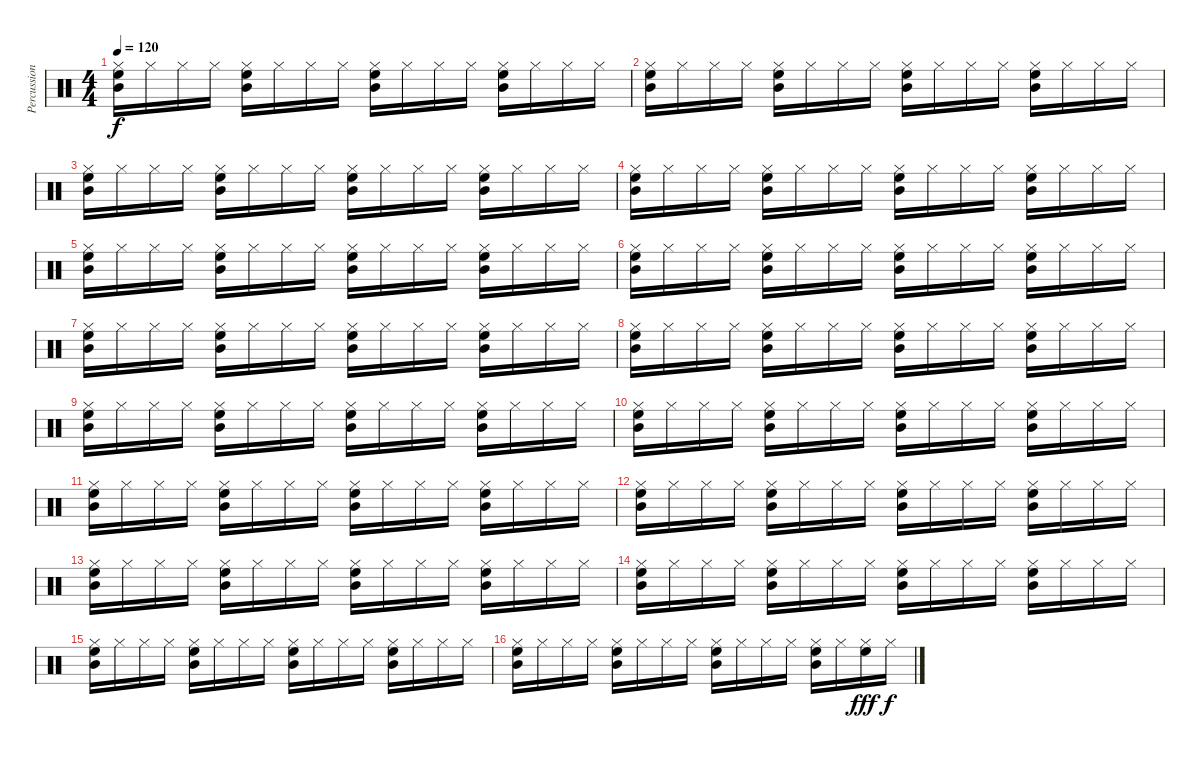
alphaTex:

\track ("Percussion" "Percussion") {instrument percussion}
\staff {score}
\articulation defaults
\ts (4 4)
\tempo 120
\clef neutral
\ks c
("Hi-Hat (closed)" "Mid Tom (hit)" "High Floor Tom (hit)").16{dy f} "Hi-Hat (closed)".16 "Hi-Hat (closed)".16 "Hi-Hat (closed)".16 ("Hi-Hat (closed)" "Mid Tom (hit)" "High Floor Tom (hit)").16 "Hi-Hat (closed)".16 "Hi-Hat (closed)".16 "Hi-Hat (closed)".16 ("Hi-Hat (closed)" "Mid Tom (hit)" "High Floor Tom (hit)").16 "Hi-Hat (closed)".16 "Hi-Hat (closed)".16 "Hi-Hat (closed)".16 ("Hi-Hat (closed)" "Mid Tom (hit)" "High Floor Tom (hit)").16 "Hi-Hat (closed)".16 "Hi-Hat (closed)".16 "Hi-Hat (closed)".16 |
("Hi-Hat (closed)" "Mid Tom (hit)" "High Floor Tom (hit)").16 "Hi-Hat (closed)".16 "Hi-Hat (closed)".16 "Hi-Hat (closed)".16 ("Hi-Hat (closed)" "Mid Tom (hit)" "High Floor Tom (hit)").16 "Hi-Hat (closed)".16 "Hi-Hat (closed)".16 "Hi-Hat (closed)".16 ("Hi-Hat (closed)" "Mid Tom (hit)" "High Floor Tom (hit)").16 "Hi-Hat (closed)".16 "Hi-Hat (closed)".16 "Hi-Hat (closed)".16 ("Hi-Hat (closed)" "Mid Tom (hit)" "High Floor Tom (hit)").16 "Hi-Hat (closed)".16 "Hi-Hat (closed)".16 "Hi-Hat (closed)".16 |
("Hi-Hat (closed)" "Mid Tom (hit)" "High Floor Tom (hit)").16 "Hi-Hat (closed)".16 "Hi-Hat (closed)".16 "Hi-Hat (closed)".16 ("Hi-Hat (closed)" "Mid Tom (hit)" "High Floor Tom (hit)").16 "Hi-Hat (closed)".16 "Hi-Hat (closed)".16 "Hi-Hat (closed)".16 ("Hi-Hat (closed)" "Mid Tom (hit)" "High Floor Tom (hit)").16 "Hi-Hat (closed)".16 "Hi-Hat (closed)".16 "Hi-Hat (closed)".16 ("Hi-Hat (closed)" "Mid Tom (hit)" "High Floor Tom (hit)").16 "Hi-Hat (closed)".16 "Hi-Hat (closed)".16 "Hi-Hat (closed)".16 |
("Hi-Hat (closed)" "Mid Tom (hit)" "High Floor Tom (hit)").16 "Hi-Hat (closed)".16 "Hi-Hat (closed)".16 "Hi-Hat (closed)".16 ("Hi-Hat (closed)" "Mid Tom (hit)" "High Floor Tom (hit)").16 "Hi-Hat (closed)".16 "Hi-Hat (closed)".16 "Hi-Hat (closed)".16 ("Hi-Hat (closed)" "Mid Tom (hit)" "High Floor Tom (hit)").16 "Hi-Hat (closed)".16 "Hi-Hat (closed)".16 "Hi-Hat (closed)".16 ("Hi-Hat (closed)" "Mid Tom (hit)" "High Floor Tom (hit)").16 "Hi-Hat (closed)".16 "Hi-Hat (closed)".16 "Hi-Hat (closed)".16 |
("Hi-Hat (closed)" "Mid Tom (hit)" "High Floor Tom (hit)").16 "Hi-Hat (closed)".16 "Hi-Hat (closed)".16 "Hi-Hat (closed)".16 ("Hi-Hat (closed)" "Mid Tom (hit)" "High Floor Tom (hit)").16 "Hi-Hat (closed)".16 "Hi-Hat (closed)".16 "Hi-Hat (closed)".16 ("Hi-Hat (closed)" "Mid Tom (hit)" "High Floor Tom (hit)").16 "Hi-Hat (closed)".16 "Hi-Hat (closed)".16 "Hi-Hat (closed)".16 ("Hi-Hat (closed)" "Mid Tom (hit)" "High Floor Tom (hit)").16 "Hi-Hat (closed)".16 "Hi-Hat (closed)".16 "Hi-Hat (closed)".16 |
("Hi-Hat (closed)" "Mid Tom (hit)" "High Floor Tom (hit)").16 "Hi-Hat (closed)".16 "Hi-Hat (closed)".16 "Hi-Hat (closed)".16 ("Hi-Hat (closed)" "Mid Tom (hit)" "High Floor Tom (hit)").16 "Hi-Hat (closed)".16 "Hi-Hat (closed)".16 "Hi-Hat (closed)".16 ("Hi-Hat (closed)" "Mid Tom (hit)" "High Floor Tom (hit)").16 "Hi-Hat (closed)".16 "Hi-Hat (closed)".16 "Hi-Hat (closed)".16 ("Hi-Hat (closed)" "Mid Tom (hit)" "High Floor Tom (hit)").16 "Hi-Hat (closed)".16 "Hi-Hat (closed)".16 "Hi-Hat (closed)".16 |
("Hi-Hat (closed)" "Mid Tom (hit)" "High Floor Tom (hit)").16 "Hi-Hat (closed)".16 "Hi-Hat (closed)".16 "Hi-Hat (closed)".16 ("Hi-Hat (closed)" "Mid Tom (hit)" "High Floor Tom (hit)").16 "Hi-Hat (closed)".16 "Hi-Hat (closed)".16 "Hi-Hat (closed)".16 ("Hi-Hat (closed)" "Mid Tom (hit)" "High Floor Tom (hit)").16 "Hi-Hat (closed)".16 "Hi-Hat (closed)".16 "Hi-Hat (closed)".16 ("Hi-Hat (closed)" "Mid Tom (hit)" "High Floor Tom (hit)").16 "Hi-Hat (closed)".16 "Hi-Hat (closed)".16 "Hi-Hat (closed)".16 |
("Hi-Hat (closed)" "Mid Tom (hit)" "High Floor Tom (hit)").16 "Hi-Hat (closed)".16 "Hi-Hat (closed)".16 "Hi-Hat (closed)".16 ("Hi-Hat (closed)" "Mid Tom (hit)" "High Floor Tom (hit)").16 "Hi-Hat (closed)".16 "Hi-Hat (closed)".16 "Hi-Hat (closed)".16 ("Hi-Hat (closed)" "Mid Tom (hit)" "High Floor Tom (hit)").16 "Hi-Hat (closed)".16 "Hi-Hat (closed)".16 "Hi-Hat (closed)".16 ("Hi-Hat (closed)" "Mid Tom (hit)" "High Floor Tom (hit)").16 "Hi-Hat (closed)".16 "Hi-Hat (closed)".16 "Hi-Hat (closed)".16 |
("Hi-Hat (closed)" "Mid Tom (hit)" "High Floor Tom (hit)").16 "Hi-Hat (closed)".16 "Hi-Hat (closed)".16 "Hi-Hat (closed)".16 ("Hi-Hat (closed)" "Mid Tom (hit)" "High Floor Tom (hit)").16 "Hi-Hat (closed)".16 "Hi-Hat (closed)".16 "Hi-Hat (closed)".16 ("Hi-Hat (closed)" "Mid Tom (hit)" "High Floor Tom (hit)").16 "Hi-Hat (closed)".16 "Hi-Hat (closed)".16 "Hi-Hat (closed)".16 ("Hi-Hat (closed)" "Mid Tom (hit)" "High Floor Tom (hit)").16 "Hi-Hat (closed)".16 "Hi-Hat (closed)".16 "Hi-Hat (closed)".16 |
("Hi-Hat (closed)" "Mid Tom (hit)" "High Floor Tom (hit)").16 "Hi-Hat (closed)".16 "Hi-Hat (closed)".16 "Hi-Hat (closed)".16 ("Hi-Hat (closed)" "Mid Tom (hit)" "High Floor Tom (hit)").16 "Hi-Hat (closed)".16 "Hi-Hat (closed)".16 "Hi-Hat (closed)".16 ("Hi-Hat (closed)" "Mid Tom (hit)" "High Floor Tom (hit)").16 "Hi-Hat (closed)".16 "Hi-Hat (closed)".16 "Hi-Hat (closed)".16 ("Hi-Hat (closed)" "Mid Tom (hit)" "High Floor Tom (hit)").16 "Hi-Hat (closed)".16 "Hi-Hat (closed)".16 "Hi-Hat (closed)".16 |
("Hi-Hat (closed)" "Mid Tom (hit)" "High Floor Tom (hit)").16 "Hi-Hat (closed)".16 "Hi-Hat (closed)".16 "Hi-Hat (closed)".16 ("Hi-Hat (closed)" "Mid Tom (hit)" "High Floor Tom (hit)").16 "Hi-Hat (closed)".16 "Hi-Hat (closed)".16 "Hi-Hat (closed)".16 ("Hi-Hat (closed)" "Mid Tom (hit)" "High Floor Tom (hit)").16 "Hi-Hat (closed)".16 "Hi-Hat (closed)".16 "Hi-Hat (closed)".16 ("Hi-Hat (closed)" "Mid Tom (hit)" "High Floor Tom (hit)").16 "Hi-Hat (closed)".16 "Hi-Hat (closed)".16 "Hi-Hat (closed)".16 |
("Hi-Hat (closed)" "Mid Tom (hit)" "High Floor Tom (hit)").16 "Hi-Hat (closed)".16 "Hi-Hat (closed)".16 "Hi-Hat (closed)".16 ("Hi-Hat (closed)" "Mid Tom (hit)" "High Floor Tom (hit)").16 "Hi-Hat (closed)".16 "Hi-Hat (closed)".16 "Hi-Hat (closed)".16 ("Hi-Hat (closed)" "Mid Tom (hit)" "High Floor Tom (hit)").16 "Hi-Hat (closed)".16 "Hi-Hat (closed)".16 "Hi-Hat (closed)".16 ("Hi-Hat (closed)" "Mid Tom (hit)" "High Floor Tom (hit)").16 "Hi-Hat (closed)".16 "Hi-Hat (closed)".16 "Hi-Hat (closed)".16 |
("Hi-Hat (closed)" "Mid Tom (hit)" "High Floor Tom (hit)").16 "Hi-Hat (closed)".16 "Hi-Hat (closed)".16 "Hi-Hat (closed)".16 ("Hi-Hat (closed)" "Mid Tom (hit)" "High Floor Tom (hit)").16 "Hi-Hat (closed)".16 "Hi-Hat (closed)".16 "Hi-Hat (closed)".16 ("Hi-Hat (closed)" "Mid Tom (hit)" "High Floor Tom (hit)").16 "Hi-Hat (closed)".16 "Hi-Hat (closed)".16 "Hi-Hat (closed)".16 ("Hi-Hat (closed)" "Mid Tom (hit)" "High Floor Tom (hit)").16 "Hi-Hat (closed)".16 "Hi-Hat (closed)".16 "Hi-Hat (closed)".16 |
("Hi-Hat (closed)" "Mid Tom (hit)" "High Floor Tom (hit)").16 "Hi-Hat (closed)".16 "Hi-Hat (closed)".16 "Hi-Hat (closed)".16 ("Hi-Hat (closed)" "Mid Tom (hit)" "High Floor Tom (hit)").16 "Hi-Hat (closed)".16 "Hi-Hat (closed)".16 "Hi-Hat (closed)".16 ("Hi-Hat (closed)" "Mid Tom (hit)" "High Floor Tom (hit)").16 "Hi-Hat (closed)".16 "Hi-Hat (closed)".16 "Hi-Hat (closed)".16 ("Hi-Hat (closed)" "Mid Tom (hit)" "High Floor Tom (hit)").16 "Hi-Hat (closed)".16 "Hi-Hat (closed)".16 "Hi-Hat (closed)".16 |
("Hi-Hat (closed)" "Mid Tom (hit)" "High Floor Tom (hit)").16 "Hi-Hat (closed)".16 "Hi-Hat (closed)".16 "Hi-Hat (closed)".16 ("Hi-Hat (closed)" "Mid Tom (hit)" "High Floor Tom (hit)").16 "Hi-Hat (closed)".16 "Hi-Hat (closed)".16 "Hi-Hat (closed)".16 ("Hi-Hat (closed)" "Mid Tom (hit)" "High Floor Tom (hit)").16 "Hi-Hat (closed)".16 "Hi-Hat (closed)".16 "Hi-Hat (closed)".16 ("Hi-Hat (closed)" "Mid Tom (hit)" "High Floor Tom (hit)").16 "Hi-Hat (closed)".16 "Hi-Hat (closed)".16 "Hi-Hat (closed)".16 |
("Hi-Hat (closed)" "Mid Tom (hit)" "High Floor Tom (hit)").16 "Hi-Hat (closed)".16 "Hi-Hat (closed)".16 "Hi-Hat (closed)".16 ("Hi-Hat (closed)" "Mid Tom (hit)" "High Floor Tom (hit)").16 "Hi-Hat (closed)".16 "Hi-Hat (closed)".16 "Hi-Hat (closed)".16 ("Hi-Hat (closed)" "Mid Tom (hit)" "High Floor Tom (hit)").16 "Hi-Hat (closed)".16 "Hi-Hat (closed)".16 "Hi-Hat (closed)".16 ("Hi-Hat (closed)" "Mid Tom (hit)" "High Floor Tom (hit)").16 "Hi-Hat (closed)".16 ("Hi-Hat (closed)" "High Floor Tom (hit)").16{dy fff} "Hi-Hat (closed)".16{dy f}
